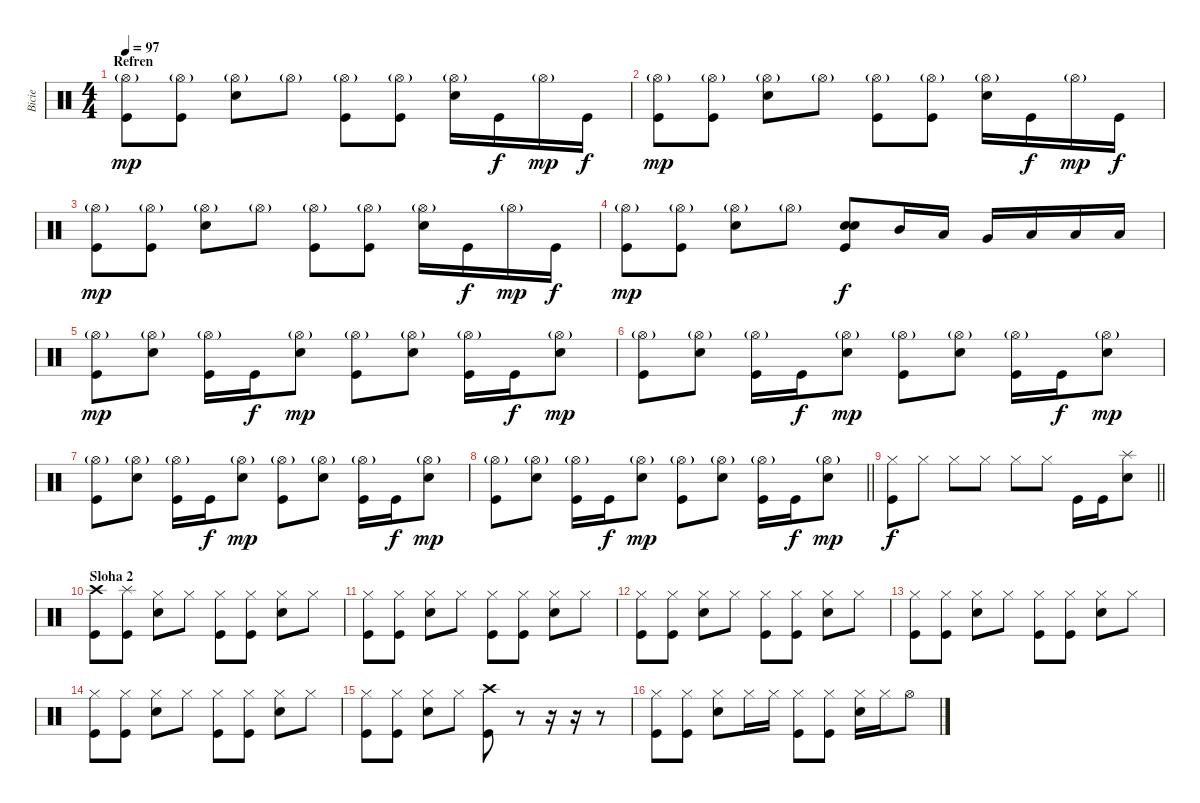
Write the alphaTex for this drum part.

\track ("Bicie" "Bicie") {instrument percussion}
\staff {score}
\articulation defaults
\ts (4 4)
\section ("" "Refren")
\tempo 97
\clef neutral
\ks c
("Hi-Hat (open)"{g} "Kick (hit)").8{dy mp} ("Hi-Hat (open)"{g} "Kick (hit)").8 ("Hi-Hat (open)"{g} "Electric Snare (hit)").8 "Hi-Hat (open)"{g}.8 ("Hi-Hat (open)"{g} "Kick (hit)").8 ("Hi-Hat (open)"{g} "Kick (hit)").8 ("Hi-Hat (open)"{g} "Electric Snare (hit)").16 "Kick (hit)".16{dy f} "Hi-Hat (open)"{g}.16{dy mp} "Kick (hit)".16{dy f} |
("Hi-Hat (open)"{g} "Kick (hit)").8{dy mp} ("Hi-Hat (open)"{g} "Kick (hit)").8 ("Hi-Hat (open)"{g} "Electric Snare (hit)").8 "Hi-Hat (open)"{g}.8 ("Hi-Hat (open)"{g} "Kick (hit)").8 ("Hi-Hat (open)"{g} "Kick (hit)").8 ("Hi-Hat (open)"{g} "Electric Snare (hit)").16 "Kick (hit)".16{dy f} "Hi-Hat (open)"{g}.16{dy mp} "Kick (hit)".16{dy f} |
("Hi-Hat (open)"{g} "Kick (hit)").8{dy mp} ("Hi-Hat (open)"{g} "Kick (hit)").8 ("Hi-Hat (open)"{g} "Electric Snare (hit)").8 "Hi-Hat (open)"{g}.8 ("Hi-Hat (open)"{g} "Kick (hit)").8 ("Hi-Hat (open)"{g} "Kick (hit)").8 ("Hi-Hat (open)"{g} "Electric Snare (hit)").16 "Kick (hit)".16{dy f} "Hi-Hat (open)"{g}.16{dy mp} "Kick (hit)".16{dy f} |
("Hi-Hat (open)"{g} "Kick (hit)").8{dy mp} ("Hi-Hat (open)"{g} "Kick (hit)").8 ("Hi-Hat (open)"{g} "Electric Snare (hit)").8 "Hi-Hat (open)"{g}.8 ("Electric Snare (hit)" "Electric Snare (hit)" "Kick (hit)").8{dy f} "Mid Tom (hit)".16 "Low Tom (hit)".16 "Very Low Tom (hit)".16 "Low Floor Tom (hit)".16 "Low Floor Tom (hit)".16 "Low Floor Tom (hit)".16 |
("Hi-Hat (open)"{g} "Kick (hit)").8{dy mp} ("Hi-Hat (open)"{g} "Electric Snare (hit)").8 ("Hi-Hat (open)"{g} "Kick (hit)").16 "Kick (hit)".16{dy f} ("Hi-Hat (open)"{g} "Electric Snare (hit)").8{dy mp} ("Hi-Hat (open)"{g} "Kick (hit)").8 ("Hi-Hat (open)"{g} "Electric Snare (hit)").8 ("Hi-Hat (open)"{g} "Kick (hit)").16 "Kick (hit)".16{dy f} ("Hi-Hat (open)"{g} "Electric Snare (hit)").8{dy mp} |
("Hi-Hat (open)"{g} "Kick (hit)").8 ("Hi-Hat (open)"{g} "Electric Snare (hit)").8 ("Hi-Hat (open)"{g} "Kick (hit)").16 "Kick (hit)".16{dy f} ("Hi-Hat (open)"{g} "Electric Snare (hit)").8{dy mp} ("Hi-Hat (open)"{g} "Kick (hit)").8 ("Hi-Hat (open)"{g} "Electric Snare (hit)").8 ("Hi-Hat (open)"{g} "Kick (hit)").16 "Kick (hit)".16{dy f} ("Hi-Hat (open)"{g} "Electric Snare (hit)").8{dy mp} |
("Hi-Hat (open)"{g} "Kick (hit)").8 ("Hi-Hat (open)"{g} "Electric Snare (hit)").8 ("Hi-Hat (open)"{g} "Kick (hit)").16 "Kick (hit)".16{dy f} ("Hi-Hat (open)"{g} "Electric Snare (hit)").8{dy mp} ("Hi-Hat (open)"{g} "Kick (hit)").8 ("Hi-Hat (open)"{g} "Electric Snare (hit)").8 ("Hi-Hat (open)"{g} "Kick (hit)").16 "Kick (hit)".16{dy f} ("Hi-Hat (open)"{g} "Electric Snare (hit)").8{dy mp} |
\barLineRight lightlight
("Hi-Hat (open)"{g} "Kick (hit)").8 ("Hi-Hat (open)"{g} "Electric Snare (hit)").8 ("Hi-Hat (open)"{g} "Kick (hit)").16 "Kick (hit)".16{dy f} ("Hi-Hat (open)"{g} "Electric Snare (hit)").8{dy mp} ("Hi-Hat (open)"{g} "Kick (hit)").8 ("Hi-Hat (open)"{g} "Electric Snare (hit)").8 ("Hi-Hat (open)"{g} "Kick (hit)").16 "Kick (hit)".16{dy f} ("Hi-Hat (open)"{g} "Electric Snare (hit)").8{dy mp} |
\section ("" "")
\barLineRight lightlight
("Hi-Hat (closed)" "Kick (hit)").8{dy f} "Hi-Hat (closed)".8 "Hi-Hat (closed)".8 "Hi-Hat (closed)".8 "Hi-Hat (closed)".8 "Hi-Hat (closed)".8 "Kick (hit)".16 "Kick (hit)".16 ("Splash (hit)" "Electric Snare (hit)").8 |
\section ("" "Sloha 2")
("Crash high (hit)" "Kick (hit)").8 ("Splash (hit)" "Kick (hit)").8 ("Hi-Hat (closed)" "Electric Snare (hit)").8 "Hi-Hat (closed)".8 ("Hi-Hat (closed)" "Kick (hit)").8 ("Hi-Hat (closed)" "Kick (hit)").8 ("Hi-Hat (closed)" "Electric Snare (hit)").8 "Hi-Hat (closed)".8 |
("Hi-Hat (closed)" "Kick (hit)").8 ("Hi-Hat (closed)" "Kick (hit)").8 ("Hi-Hat (closed)" "Electric Snare (hit)").8 "Hi-Hat (closed)".8 ("Hi-Hat (closed)" "Kick (hit)").8 ("Hi-Hat (closed)" "Kick (hit)").8 ("Hi-Hat (closed)" "Electric Snare (hit)").8 "Hi-Hat (closed)".8 |
("Hi-Hat (closed)" "Kick (hit)").8 ("Hi-Hat (closed)" "Kick (hit)").8 ("Hi-Hat (closed)" "Electric Snare (hit)").8 "Hi-Hat (closed)".8 ("Hi-Hat (closed)" "Kick (hit)").8 ("Hi-Hat (closed)" "Kick (hit)").8 ("Hi-Hat (closed)" "Electric Snare (hit)").8 "Hi-Hat (closed)".8 |
("Hi-Hat (closed)" "Kick (hit)").8 ("Hi-Hat (closed)" "Kick (hit)").8 ("Hi-Hat (closed)" "Electric Snare (hit)").8 "Hi-Hat (closed)".8 ("Hi-Hat (closed)" "Kick (hit)").8 ("Hi-Hat (closed)" "Kick (hit)").8 ("Hi-Hat (closed)" "Electric Snare (hit)").8 "Hi-Hat (closed)".8 |
("Hi-Hat (closed)" "Kick (hit)").8 ("Hi-Hat (closed)" "Kick (hit)").8 ("Hi-Hat (closed)" "Electric Snare (hit)").8 "Hi-Hat (closed)".8 ("Hi-Hat (closed)" "Kick (hit)").8 ("Hi-Hat (closed)" "Kick (hit)").8 ("Hi-Hat (closed)" "Electric Snare (hit)").8 "Hi-Hat (closed)".8 |
("Hi-Hat (closed)" "Kick (hit)").8 ("Hi-Hat (closed)" "Kick (hit)").8 ("Hi-Hat (closed)" "Electric Snare (hit)").8 "Hi-Hat (closed)".8 ("Crash high (hit)" "Kick (hit)").8 r.8 r.16 r.16 r.8 |
("Hi-Hat (closed)" "Kick (hit)").8 ("Hi-Hat (closed)" "Kick (hit)").8 ("Hi-Hat (closed)" "Electric Snare (hit)").8 "Hi-Hat (closed)".16 "Hi-Hat (closed)".16 ("Hi-Hat (closed)" "Kick (hit)").8 ("Hi-Hat (closed)" "Kick (hit)").8 ("Hi-Hat (closed)" "Electric Snare (hit)").16 "Hi-Hat (closed)".16 "Hi-Hat (open)".8
